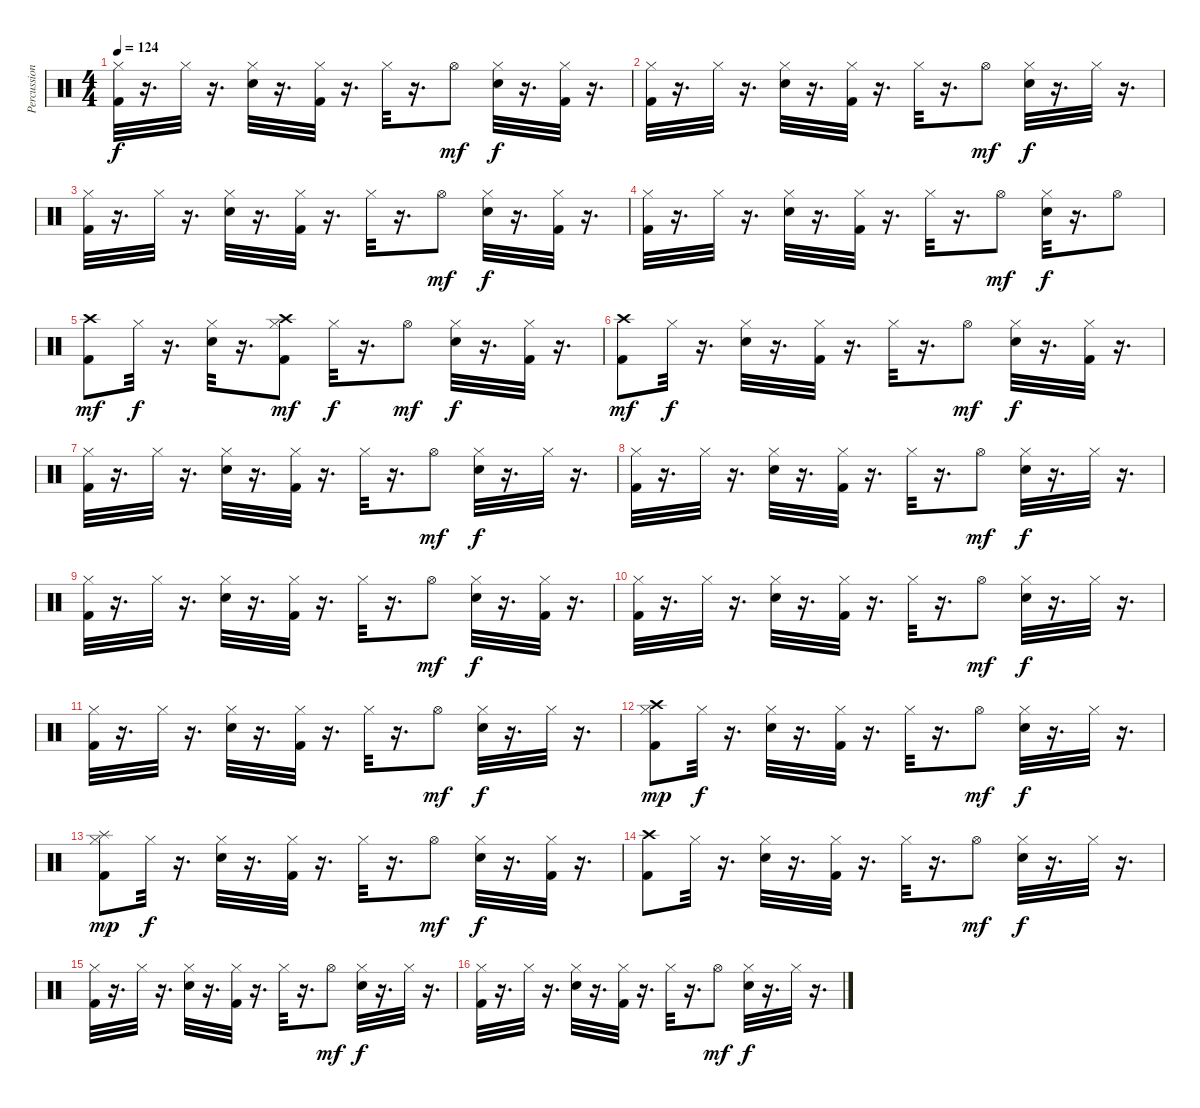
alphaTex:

\track ("Percussions" "Percussion") {instrument percussion}
\staff {score}
\articulation defaults
\ts (4 4)
\tempo 124
\clef neutral
\ks c
("Kick (hit) 2" "Hi-Hat (closed)").32{dy f} r.16{d} "Hi-Hat (closed)".32 r.16{d} ("Snare (hit) 2" "Hi-Hat (closed)").32 r.16{d} ("Kick (hit) 2" "Hi-Hat (closed)").32 r.16{d} "Hi-Hat (closed)".32 r.16{d} "Hi-Hat (open)".8{dy mf} ("Snare (hit) 2" "Hi-Hat (closed)").32{dy f} r.16{d} ("Kick (hit) 2" "Hi-Hat (closed)").32 r.16{d} |
("Kick (hit) 2" "Hi-Hat (closed)").32 r.16{d} "Hi-Hat (closed)".32 r.16{d} ("Snare (hit) 2" "Hi-Hat (closed)").32 r.16{d} ("Kick (hit) 2" "Hi-Hat (closed)").32 r.16{d} "Hi-Hat (closed)".32 r.16{d} "Hi-Hat (open)".8{dy mf} ("Snare (hit) 2" "Hi-Hat (closed)").32{dy f} r.16{d} "Hi-Hat (closed)".32 r.16{d} |
("Kick (hit) 2" "Hi-Hat (closed)").32 r.16{d} "Hi-Hat (closed)".32 r.16{d} ("Snare (hit) 2" "Hi-Hat (closed)").32 r.16{d} ("Kick (hit) 2" "Hi-Hat (closed)").32 r.16{d} "Hi-Hat (closed)".32 r.16{d} "Hi-Hat (open)".8{dy mf} ("Snare (hit) 2" "Hi-Hat (closed)").32{dy f} r.16{d} ("Kick (hit) 2" "Hi-Hat (closed)").32 r.16{d} |
("Kick (hit) 2" "Hi-Hat (closed)").32 r.16{d} "Hi-Hat (closed)".32 r.16{d} ("Snare (hit) 2" "Hi-Hat (closed)").32 r.16{d} ("Kick (hit) 2" "Hi-Hat (closed)").32 r.16{d} "Hi-Hat (closed)".32 r.16{d} "Hi-Hat (open)".8{dy mf} ("Snare (hit) 2" "Hi-Hat (closed)").32{dy f} r.16{d} "Hi-Hat (open)".8 |
("Kick (hit) 2" "Crash high (hit)").8{dy mf} "Hi-Hat (closed)".32{dy f} r.16{d} ("Snare (hit) 2" "Hi-Hat (closed)").32 r.16{d} ("Kick (hit) 2" "Hi-Hat (closed)" "Crash high (hit)").8{dy mf} "Hi-Hat (closed)".32{dy f} r.16{d} "Hi-Hat (open)".8{dy mf} ("Snare (hit) 2" "Hi-Hat (closed)").32{dy f} r.16{d} ("Kick (hit) 2" "Hi-Hat (closed)").32 r.16{d} |
("Kick (hit) 2" "Crash high (hit)").8{dy mf} "Hi-Hat (closed)".32{dy f} r.16{d} ("Snare (hit) 2" "Hi-Hat (closed)").32 r.16{d} ("Kick (hit) 2" "Hi-Hat (closed)").32 r.16{d} "Hi-Hat (closed)".32 r.16{d} "Hi-Hat (open)".8{dy mf} ("Snare (hit) 2" "Hi-Hat (closed)").32{dy f} r.16{d} ("Kick (hit) 2" "Hi-Hat (closed)").32 r.16{d} |
("Kick (hit) 2" "Hi-Hat (closed)").32 r.16{d} "Hi-Hat (closed)".32 r.16{d} ("Snare (hit) 2" "Hi-Hat (closed)").32 r.16{d} ("Kick (hit) 2" "Hi-Hat (closed)").32 r.16{d} "Hi-Hat (closed)".32 r.16{d} "Hi-Hat (open)".8{dy mf} ("Snare (hit) 2" "Hi-Hat (closed)").32{dy f} r.16{d} "Hi-Hat (closed)".32 r.16{d} |
("Kick (hit) 2" "Hi-Hat (closed)").32 r.16{d} "Hi-Hat (closed)".32 r.16{d} ("Snare (hit) 2" "Hi-Hat (closed)").32 r.16{d} ("Kick (hit) 2" "Hi-Hat (closed)").32 r.16{d} "Hi-Hat (closed)".32 r.16{d} "Hi-Hat (open)".8{dy mf} ("Snare (hit) 2" "Hi-Hat (closed)").32{dy f} r.16{d} "Hi-Hat (closed)".32 r.16{d} |
("Kick (hit) 2" "Hi-Hat (closed)").32 r.16{d} "Hi-Hat (closed)".32 r.16{d} ("Snare (hit) 2" "Hi-Hat (closed)").32 r.16{d} ("Kick (hit) 2" "Hi-Hat (closed)").32 r.16{d} "Hi-Hat (closed)".32 r.16{d} "Hi-Hat (open)".8{dy mf} ("Snare (hit) 2" "Hi-Hat (closed)").32{dy f} r.16{d} ("Kick (hit) 2" "Hi-Hat (closed)").32 r.16{d} |
("Kick (hit) 2" "Hi-Hat (closed)").32 r.16{d} "Hi-Hat (closed)".32 r.16{d} ("Snare (hit) 2" "Hi-Hat (closed)").32 r.16{d} ("Kick (hit) 2" "Hi-Hat (closed)").32 r.16{d} "Hi-Hat (closed)".32 r.16{d} "Hi-Hat (open)".8{dy mf} ("Snare (hit) 2" "Hi-Hat (closed)").32{dy f} r.16{d} "Hi-Hat (closed)".32 r.16{d} |
("Kick (hit) 2" "Hi-Hat (closed)").32 r.16{d} "Hi-Hat (closed)".32 r.16{d} ("Snare (hit) 2" "Hi-Hat (closed)").32 r.16{d} ("Kick (hit) 2" "Hi-Hat (closed)").32 r.16{d} "Hi-Hat (closed)".32 r.16{d} "Hi-Hat (open)".8{dy mf} ("Snare (hit) 2" "Hi-Hat (closed)").32{dy f} r.16{d} "Hi-Hat (closed)".32 r.16{d} |
("Kick (hit) 2" "Hi-Hat (closed)" "Crash high (hit)").8{dy mp} "Hi-Hat (closed)".32{dy f} r.16{d} ("Snare (hit) 2" "Hi-Hat (closed)").32 r.16{d} ("Kick (hit) 2" "Hi-Hat (closed)").32 r.16{d} "Hi-Hat (closed)".32 r.16{d} "Hi-Hat (open)".8{dy mf} ("Snare (hit) 2" "Hi-Hat (closed)").32{dy f} r.16{d} "Hi-Hat (closed)".32 r.16{d} |
("Kick (hit) 2" "Hi-Hat (closed)" "Splash (hit)").8{dy mp} "Hi-Hat (closed)".32{dy f} r.16{d} ("Snare (hit) 2" "Hi-Hat (closed)").32 r.16{d} ("Kick (hit) 2" "Hi-Hat (closed)").32 r.16{d} "Hi-Hat (closed)".32 r.16{d} "Hi-Hat (open)".8{dy mf} ("Snare (hit) 2" "Hi-Hat (closed)").32{dy f} r.16{d} ("Kick (hit) 2" "Hi-Hat (closed)").32 r.16{d} |
("Kick (hit) 2" "Crash high (hit)").8 "Hi-Hat (closed)".32 r.16{d} ("Snare (hit) 2" "Hi-Hat (closed)").32 r.16{d} ("Kick (hit) 2" "Hi-Hat (closed)").32 r.16{d} "Hi-Hat (closed)".32 r.16{d} "Hi-Hat (open)".8{dy mf} ("Snare (hit) 2" "Hi-Hat (closed)").32{dy f} r.16{d} "Hi-Hat (closed)".32 r.16{d} |
("Kick (hit) 2" "Hi-Hat (closed)").32 r.16{d} "Hi-Hat (closed)".32 r.16{d} ("Snare (hit) 2" "Hi-Hat (closed)").32 r.16{d} ("Kick (hit) 2" "Hi-Hat (closed)").32 r.16{d} "Hi-Hat (closed)".32 r.16{d} "Hi-Hat (open)".8{dy mf} ("Snare (hit) 2" "Hi-Hat (closed)").32{dy f} r.16{d} "Hi-Hat (closed)".32 r.16{d} |
("Kick (hit) 2" "Hi-Hat (closed)").32 r.16{d} "Hi-Hat (closed)".32 r.16{d} ("Snare (hit) 2" "Hi-Hat (closed)").32 r.16{d} ("Kick (hit) 2" "Hi-Hat (closed)").32 r.16{d} "Hi-Hat (closed)".32 r.16{d} "Hi-Hat (open)".8{dy mf} ("Snare (hit) 2" "Hi-Hat (closed)").32{dy f} r.16{d} "Hi-Hat (closed)".32 r.16{d}
